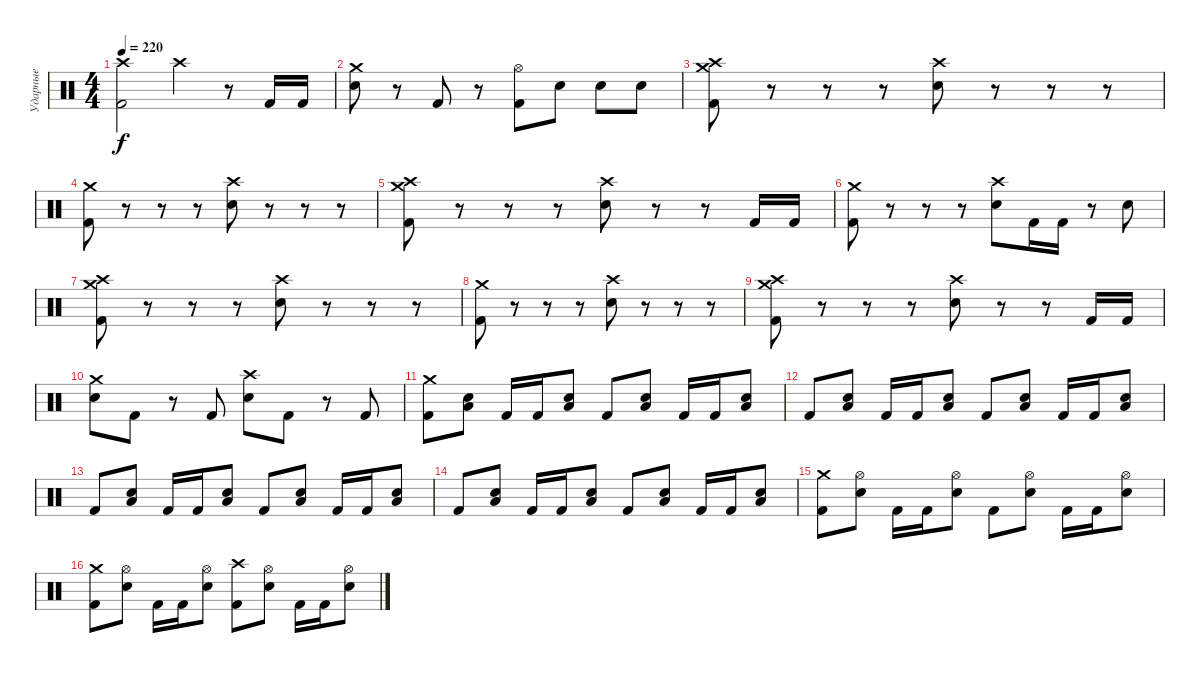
\track ("Ударные" "Ударные") {instrument percussion}
\staff {score}
\articulation defaults
\ts (4 4)
\tempo 220
\clef neutral
\ks c
("Crash high (hit)" "Kick (hit) 2").2{dy f} "Crash high (hit)".4 r.8 "Kick (hit) 2".16 "Kick (hit) 2".16 |
("Crash medium (hit)" "Electric Snare (hit)").8 r.8 "Kick (hit) 2".8 r.8 ("Hi-Hat (open)" "Kick (hit) 2").8 "Electric Snare (hit)".8 "Electric Snare (hit)".8 "Electric Snare (hit)".8 |
("Crash medium (hit)" "Crash high (hit)" "Kick (hit) 2").8 r.8 r.8 r.8 ("Crash high (hit)" "Electric Snare (hit)").8 r.8 r.8 r.8 |
("Crash medium (hit)" "Kick (hit) 2").8 r.8 r.8 r.8 ("Crash high (hit)" "Electric Snare (hit)").8 r.8 r.8 r.8 |
("Crash medium (hit)" "Crash high (hit)" "Kick (hit) 2").8 r.8 r.8 r.8 ("Crash high (hit)" "Electric Snare (hit)").8 r.8 r.8 "Kick (hit) 2".16 "Kick (hit) 2".16 |
("Crash medium (hit)" "Kick (hit) 2").8 r.8 r.8 r.8 ("Crash high (hit)" "Electric Snare (hit)").8 "Kick (hit) 2".16 "Kick (hit) 2".16 r.8 "Electric Snare (hit)".8 |
("Crash medium (hit)" "Crash high (hit)" "Kick (hit) 2").8 r.8 r.8 r.8 ("Crash high (hit)" "Electric Snare (hit)").8 r.8 r.8 r.8 |
("Crash medium (hit)" "Kick (hit) 2").8 r.8 r.8 r.8 ("Crash high (hit)" "Electric Snare (hit)").8 r.8 r.8 r.8 |
("Crash medium (hit)" "Crash high (hit)" "Kick (hit) 2").8 r.8 r.8 r.8 ("Crash high (hit)" "Electric Snare (hit)").8 r.8 r.8 "Kick (hit) 2".16 "Kick (hit) 2".16 |
("Crash medium (hit)" "Electric Snare (hit)").8 "Kick (hit) 2".8 r.8 "Kick (hit) 2".8 ("Crash high (hit)" "Electric Snare (hit)").8 "Kick (hit) 2".8 r.8 "Kick (hit) 2".8 |
("Crash medium (hit)" "Kick (hit) 2").8 ("Low Floor Tom (hit)" "Electric Snare (hit)").8 "Kick (hit) 2".16 "Kick (hit) 2".16 ("Low Floor Tom (hit)" "Electric Snare (hit)").8 "Kick (hit) 2".8 ("Low Floor Tom (hit)" "Electric Snare (hit)").8 "Kick (hit) 2".16 "Kick (hit) 2".16 ("Low Floor Tom (hit)" "Electric Snare (hit)").8 |
"Kick (hit) 2".8 ("Low Floor Tom (hit)" "Electric Snare (hit)").8 "Kick (hit) 2".16 "Kick (hit) 2".16 ("Low Floor Tom (hit)" "Electric Snare (hit)").8 "Kick (hit) 2".8 ("Low Floor Tom (hit)" "Electric Snare (hit)").8 "Kick (hit) 2".16 "Kick (hit) 2".16 ("Low Floor Tom (hit)" "Electric Snare (hit)").8 |
"Kick (hit) 2".8 ("Low Floor Tom (hit)" "Electric Snare (hit)").8 "Kick (hit) 2".16 "Kick (hit) 2".16 ("Low Floor Tom (hit)" "Electric Snare (hit)").8 "Kick (hit) 2".8 ("Low Floor Tom (hit)" "Electric Snare (hit)").8 "Kick (hit) 2".16 "Kick (hit) 2".16 ("Low Floor Tom (hit)" "Electric Snare (hit)").8 |
"Kick (hit) 2".8 ("Low Floor Tom (hit)" "Electric Snare (hit)").8 "Kick (hit) 2".16 "Kick (hit) 2".16 ("Low Floor Tom (hit)" "Electric Snare (hit)").8 "Kick (hit) 2".8 ("Low Floor Tom (hit)" "Electric Snare (hit)").8 "Kick (hit) 2".16 "Kick (hit) 2".16 ("Low Floor Tom (hit)" "Electric Snare (hit)").8 |
("Crash medium (hit)" "Kick (hit) 2").8 ("Hi-Hat (open)" "Electric Snare (hit)").8 "Kick (hit) 2".16 "Kick (hit) 2".16 ("Hi-Hat (open)" "Electric Snare (hit)").8 "Kick (hit) 2".8 ("Hi-Hat (open)" "Electric Snare (hit)").8 "Kick (hit) 2".16 "Kick (hit) 2".16 ("Hi-Hat (open)" "Electric Snare (hit)").8 |
("Crash medium (hit)" "Kick (hit) 2").8 ("Hi-Hat (open)" "Electric Snare (hit)").8 "Kick (hit) 2".16 "Kick (hit) 2".16 ("Hi-Hat (open)" "Electric Snare (hit)").8 ("Crash high (hit)" "Kick (hit) 2").8 ("Hi-Hat (open)" "Electric Snare (hit)").8 "Kick (hit) 2".16 "Kick (hit) 2".16 ("Hi-Hat (open)" "Electric Snare (hit)").8
